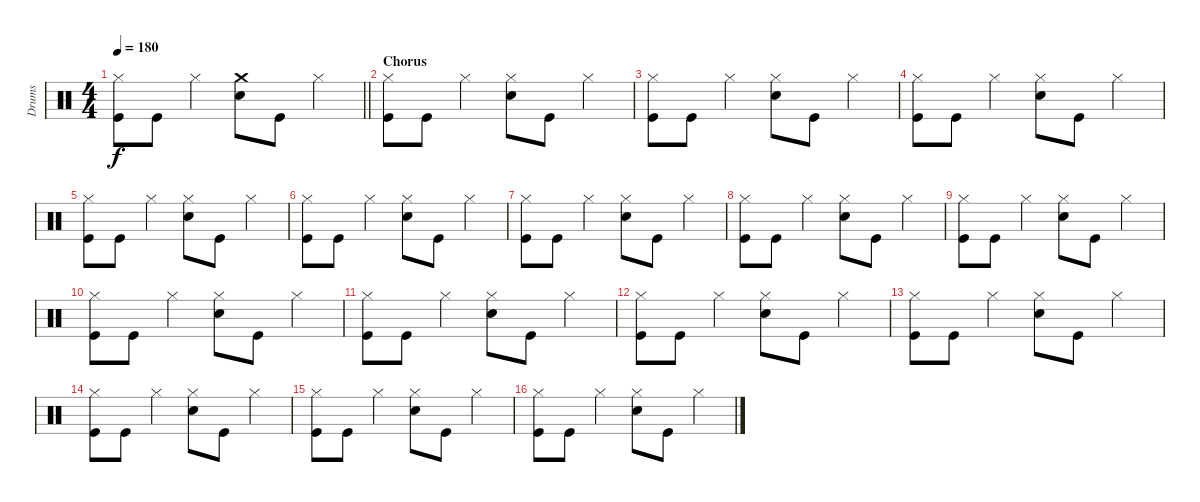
\track ("Drums" "Drums") {instrument percussion}
\staff {score}
\articulation defaults
\ts (4 4)
\tempo 180
\clef neutral
\barLineRight lightlight
\ks c
("Hi-Hat (closed)" "Kick (hit)").8{dy f} "Kick (hit)".8 "Hi-Hat (closed)".4 ("Crash medium (hit)" "Snare (hit) 2").8 "Kick (hit)".8 "Hi-Hat (closed)".4 |
\section ("" "Chorus")
("Hi-Hat (closed)" "Kick (hit)").8 "Kick (hit)".8 "Hi-Hat (closed)".4 ("Hi-Hat (closed)" "Snare (hit) 2").8 "Kick (hit)".8 "Hi-Hat (closed)".4 |
("Hi-Hat (closed)" "Kick (hit)").8 "Kick (hit)".8 "Hi-Hat (closed)".4 ("Hi-Hat (closed)" "Snare (hit) 2").8 "Kick (hit)".8 "Hi-Hat (closed)".4 |
("Hi-Hat (closed)" "Kick (hit)").8 "Kick (hit)".8 "Hi-Hat (closed)".4 ("Hi-Hat (closed)" "Snare (hit) 2").8 "Kick (hit)".8 "Hi-Hat (closed)".4 |
("Hi-Hat (closed)" "Kick (hit)").8 "Kick (hit)".8 "Hi-Hat (closed)".4 ("Hi-Hat (closed)" "Snare (hit) 2").8 "Kick (hit)".8 "Hi-Hat (closed)".4 |
("Hi-Hat (closed)" "Kick (hit)").8 "Kick (hit)".8 "Hi-Hat (closed)".4 ("Hi-Hat (closed)" "Snare (hit) 2").8 "Kick (hit)".8 "Hi-Hat (closed)".4 |
("Hi-Hat (closed)" "Kick (hit)").8 "Kick (hit)".8 "Hi-Hat (closed)".4 ("Hi-Hat (closed)" "Snare (hit) 2").8 "Kick (hit)".8 "Hi-Hat (closed)".4 |
("Hi-Hat (closed)" "Kick (hit)").8 "Kick (hit)".8 "Hi-Hat (closed)".4 ("Hi-Hat (closed)" "Snare (hit) 2").8 "Kick (hit)".8 "Hi-Hat (closed)".4 |
("Hi-Hat (closed)" "Kick (hit)").8 "Kick (hit)".8 "Hi-Hat (closed)".4 ("Hi-Hat (closed)" "Snare (hit) 2").8 "Kick (hit)".8 "Hi-Hat (closed)".4 |
("Hi-Hat (closed)" "Kick (hit)").8 "Kick (hit)".8 "Hi-Hat (closed)".4 ("Hi-Hat (closed)" "Snare (hit) 2").8 "Kick (hit)".8 "Hi-Hat (closed)".4 |
("Hi-Hat (closed)" "Kick (hit)").8 "Kick (hit)".8 "Hi-Hat (closed)".4 ("Hi-Hat (closed)" "Snare (hit) 2").8 "Kick (hit)".8 "Hi-Hat (closed)".4 |
("Hi-Hat (closed)" "Kick (hit)").8 "Kick (hit)".8 "Hi-Hat (closed)".4 ("Hi-Hat (closed)" "Snare (hit) 2").8 "Kick (hit)".8 "Hi-Hat (closed)".4 |
("Hi-Hat (closed)" "Kick (hit)").8 "Kick (hit)".8 "Hi-Hat (closed)".4 ("Hi-Hat (closed)" "Snare (hit) 2").8 "Kick (hit)".8 "Hi-Hat (closed)".4 |
("Hi-Hat (closed)" "Kick (hit)").8 "Kick (hit)".8 "Hi-Hat (closed)".4 ("Hi-Hat (closed)" "Snare (hit) 2").8 "Kick (hit)".8 "Hi-Hat (closed)".4 |
("Hi-Hat (closed)" "Kick (hit)").8 "Kick (hit)".8 "Hi-Hat (closed)".4 ("Hi-Hat (closed)" "Snare (hit) 2").8 "Kick (hit)".8 "Hi-Hat (closed)".4 |
("Hi-Hat (closed)" "Kick (hit)").8 "Kick (hit)".8 "Hi-Hat (closed)".4 ("Hi-Hat (closed)" "Snare (hit) 2").8 "Kick (hit)".8 "Hi-Hat (closed)".4
